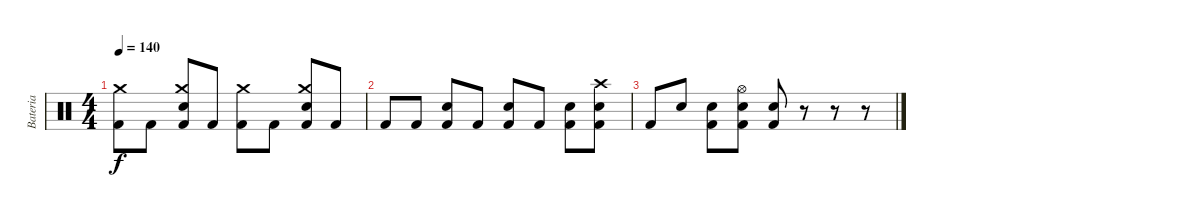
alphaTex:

\track ("Bateria" "Bateria") {instrument percussion}
\staff {score}
\articulation defaults
\ts (4 4)
\tempo 140
\clef neutral
\ks c
("Kick (hit) 2" "Crash medium (hit)").8{dy f} "Kick (hit) 2".8 ("Kick (hit) 2" "Crash medium (hit)" "Electric Snare (hit)").8 "Kick (hit) 2".8 ("Kick (hit) 2" "Crash medium (hit)").8 "Kick (hit) 2".8 ("Kick (hit) 2" "Crash medium (hit)" "Electric Snare (hit)").8 "Kick (hit) 2".8 |
"Kick (hit) 2".8 "Kick (hit) 2".8 ("Kick (hit) 2" "Electric Snare (hit)").8 "Kick (hit) 2".8 ("Kick (hit) 2" "Electric Snare (hit)").8 "Kick (hit) 2".8 ("Kick (hit) 2" "Electric Snare (hit)").8 ("Kick (hit) 2" "Electric Snare (hit)" "Crash high (hit)").8 |
"Kick (hit) 2".8 "Snare (hit) 2".8 ("Kick (hit) 2" "Electric Snare (hit)").8 ("Kick (hit) 2" "Electric Snare (hit)" "Hi-Hat (open)").8 ("Kick (hit) 2" "Electric Snare (hit)").8 r.8 r.8 r.8
